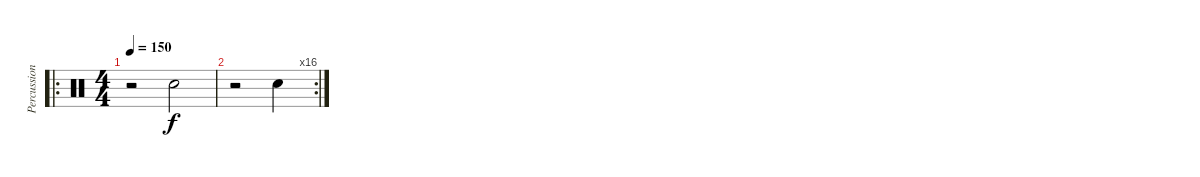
\track ("Percussions" "Percussion") {instrument percussion}
\staff {score}
\articulation defaults
\ro
\ts (4 4)
\tempo 150
\clef neutral
\ks c
r.2{dy f} "Electric Snare (hit)".2 |
\rc 16
r.2 "Electric Snare (hit)".4
